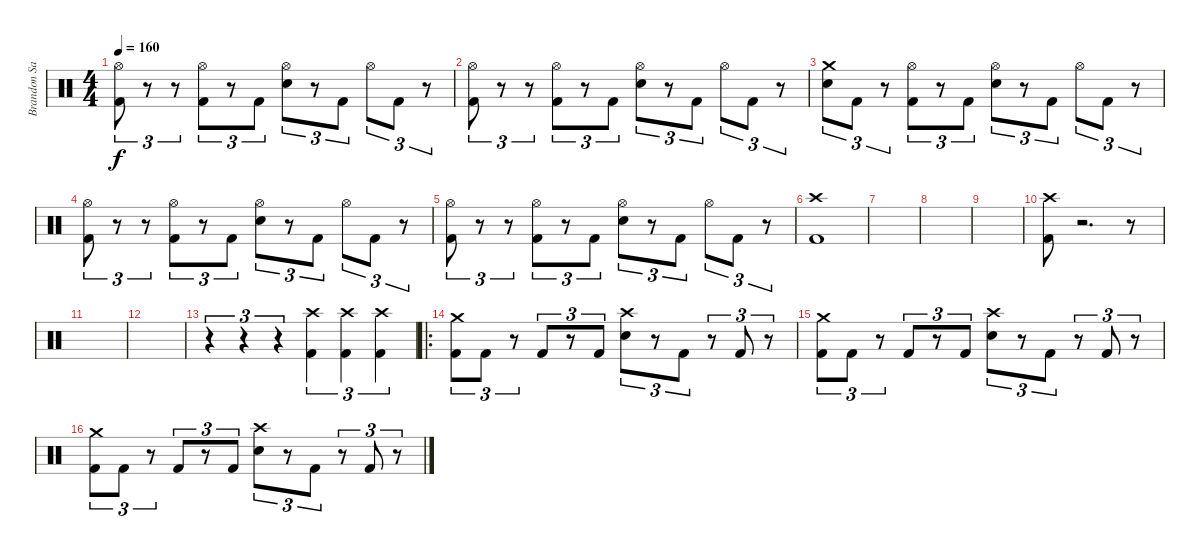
\track ("Brandon Saller" "Brandon Sa") {instrument percussion}
\staff {score}
\articulation defaults
\ts (4 4)
\tempo 160
\clef neutral
\ks c
("Hi-Hat (open)" "Kick (hit) 2").8{tu (3 2) dy f} r.8{tu (3 2)} r.8{tu (3 2)} ("Hi-Hat (open)" "Kick (hit) 2").8{tu (3 2)} r.8{tu (3 2)} "Kick (hit) 2".8{tu (3 2)} ("Hi-Hat (open)" "Electric Snare (hit)").8{tu (3 2)} r.8{tu (3 2)} "Kick (hit) 2".8{tu (3 2)} "Hi-Hat (open)".8{tu (3 2)} "Kick (hit) 2".8{tu (3 2)} r.8{tu (3 2)} |
("Hi-Hat (open)" "Kick (hit) 2").8{tu (3 2)} r.8{tu (3 2)} r.8{tu (3 2)} ("Hi-Hat (open)" "Kick (hit) 2").8{tu (3 2)} r.8{tu (3 2)} "Kick (hit) 2".8{tu (3 2)} ("Hi-Hat (open)" "Electric Snare (hit)").8{tu (3 2)} r.8{tu (3 2)} "Kick (hit) 2".8{tu (3 2)} "Hi-Hat (open)".8{tu (3 2)} "Kick (hit) 2".8{tu (3 2)} r.8{tu (3 2)} |
("Crash medium (hit)" "Electric Snare (hit)").8{tu (3 2)} "Kick (hit) 2".8{tu (3 2)} r.8{tu (3 2)} ("Hi-Hat (open)" "Kick (hit) 2").8{tu (3 2)} r.8{tu (3 2)} "Kick (hit) 2".8{tu (3 2)} ("Hi-Hat (open)" "Electric Snare (hit)").8{tu (3 2)} r.8{tu (3 2)} "Kick (hit) 2".8{tu (3 2)} "Hi-Hat (open)".8{tu (3 2)} "Kick (hit) 2".8{tu (3 2)} r.8{tu (3 2)} |
("Hi-Hat (open)" "Kick (hit) 2").8{tu (3 2)} r.8{tu (3 2)} r.8{tu (3 2)} ("Hi-Hat (open)" "Kick (hit) 2").8{tu (3 2)} r.8{tu (3 2)} "Kick (hit) 2".8{tu (3 2)} ("Hi-Hat (open)" "Electric Snare (hit)").8{tu (3 2)} r.8{tu (3 2)} "Kick (hit) 2".8{tu (3 2)} "Hi-Hat (open)".8{tu (3 2)} "Kick (hit) 2".8{tu (3 2)} r.8{tu (3 2)} |
("Hi-Hat (open)" "Kick (hit) 2").8{tu (3 2)} r.8{tu (3 2)} r.8{tu (3 2)} ("Hi-Hat (open)" "Kick (hit) 2").8{tu (3 2)} r.8{tu (3 2)} "Kick (hit) 2".8{tu (3 2)} ("Hi-Hat (open)" "Electric Snare (hit)").8{tu (3 2)} r.8{tu (3 2)} "Kick (hit) 2".8{tu (3 2)} "Hi-Hat (open)".8{tu (3 2)} "Kick (hit) 2".8{tu (3 2)} r.8{tu (3 2)} |
("Crash high (hit)" "Kick (hit) 2").1 |
|
|
|
("Crash high (hit)" "Kick (hit) 2").8 r.2{d} r.8 |
|
|
r.4{tu (3 2)} r.4{tu (3 2)} r.4{tu (3 2)} ("Crash high (hit)" "Kick (hit) 2").4{tu (3 2)} ("Crash high (hit)" "Kick (hit) 2").4{tu (3 2)} ("Crash high (hit)" "Kick (hit) 2").4{tu (3 2)} |
\ro
("Crash medium (hit)" "Kick (hit) 2").8{tu (3 2)} "Kick (hit) 2".8{tu (3 2)} r.8{tu (3 2)} "Kick (hit) 2".8{tu (3 2)} r.8{tu (3 2)} "Kick (hit) 2".8{tu (3 2)} ("Crash high (hit)" "Electric Snare (hit)").8{tu (3 2)} r.8{tu (3 2)} "Kick (hit) 2".8{tu (3 2)} r.8{tu (3 2)} "Kick (hit) 2".8{tu (3 2)} r.8{tu (3 2)} |
("Crash medium (hit)" "Kick (hit) 2").8{tu (3 2)} "Kick (hit) 2".8{tu (3 2)} r.8{tu (3 2)} "Kick (hit) 2".8{tu (3 2)} r.8{tu (3 2)} "Kick (hit) 2".8{tu (3 2)} ("Crash high (hit)" "Electric Snare (hit)").8{tu (3 2)} r.8{tu (3 2)} "Kick (hit) 2".8{tu (3 2)} r.8{tu (3 2)} "Kick (hit) 2".8{tu (3 2)} r.8{tu (3 2)} |
("Crash medium (hit)" "Kick (hit) 2").8{tu (3 2)} "Kick (hit) 2".8{tu (3 2)} r.8{tu (3 2)} "Kick (hit) 2".8{tu (3 2)} r.8{tu (3 2)} "Kick (hit) 2".8{tu (3 2)} ("Crash high (hit)" "Electric Snare (hit)").8{tu (3 2)} r.8{tu (3 2)} "Kick (hit) 2".8{tu (3 2)} r.8{tu (3 2)} "Kick (hit) 2".8{tu (3 2)} r.8{tu (3 2)}
